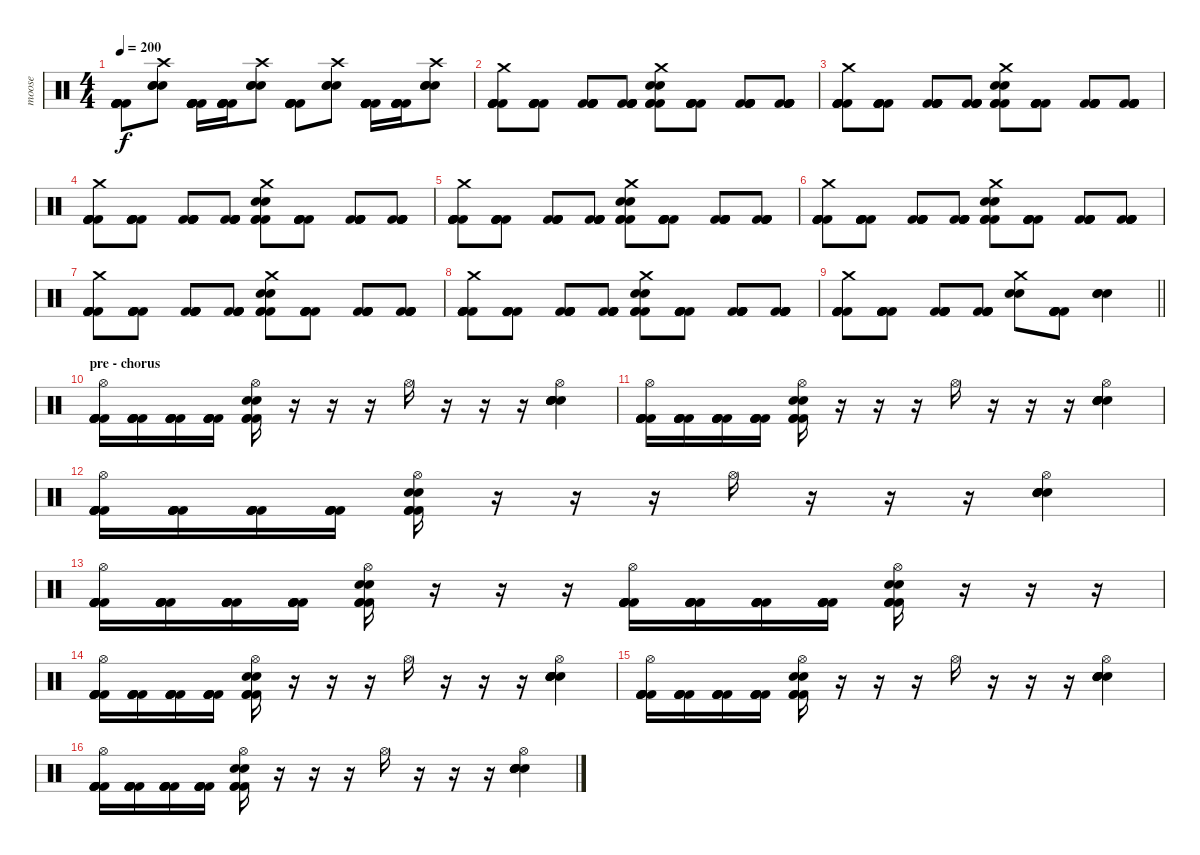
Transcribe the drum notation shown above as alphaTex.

\track ("moose" "moose") {instrument percussion}
\staff {score}
\articulation defaults
\ts (4 4)
\tempo 200
\clef neutral
\ks c
("Kick (hit) 2" "Kick (hit) 2" "Kick (hit) 2" "Kick (hit) 2" "Kick (hit) 2" "Kick (hit) 2").8{dy f} ("Electric Snare (hit)" "Electric Snare (hit)" "Electric Snare (hit)" "Crash high (hit)").8 ("Kick (hit) 2" "Kick (hit) 2" "Kick (hit) 2" "Kick (hit) 2" "Kick (hit) 2" "Kick (hit) 2").16 ("Kick (hit) 2" "Kick (hit) 2" "Kick (hit) 2" "Kick (hit) 2" "Kick (hit) 2" "Kick (hit) 2").16 ("Electric Snare (hit)" "Electric Snare (hit)" "Electric Snare (hit)" "Crash high (hit)").8 ("Kick (hit) 2" "Kick (hit) 2" "Kick (hit) 2" "Kick (hit) 2" "Kick (hit) 2" "Kick (hit) 2").8 ("Electric Snare (hit)" "Electric Snare (hit)" "Electric Snare (hit)" "Crash high (hit)").8 ("Kick (hit) 2" "Kick (hit) 2" "Kick (hit) 2" "Kick (hit) 2" "Kick (hit) 2" "Kick (hit) 2").16 ("Kick (hit) 2" "Kick (hit) 2" "Kick (hit) 2" "Kick (hit) 2" "Kick (hit) 2" "Kick (hit) 2").16 ("Electric Snare (hit)" "Electric Snare (hit)" "Electric Snare (hit)" "Crash high (hit)").8 |
("Kick (hit) 2" "Kick (hit) 2" "Kick (hit) 2" "Kick (hit) 2" "Kick (hit) 2" "Crash medium (hit)").8 ("Kick (hit) 2" "Kick (hit) 2" "Kick (hit) 2" "Kick (hit) 2" "Kick (hit) 2").8 ("Kick (hit) 2" "Kick (hit) 2" "Kick (hit) 2" "Kick (hit) 2" "Kick (hit) 2").8 ("Kick (hit) 2" "Kick (hit) 2" "Kick (hit) 2" "Kick (hit) 2" "Kick (hit) 2").8 ("Kick (hit) 2" "Kick (hit) 2" "Kick (hit) 2" "Electric Snare (hit)" "Electric Snare (hit)" "Crash medium (hit)").8 ("Kick (hit) 2" "Kick (hit) 2" "Kick (hit) 2" "Kick (hit) 2" "Kick (hit) 2").8 ("Kick (hit) 2" "Kick (hit) 2" "Kick (hit) 2" "Kick (hit) 2" "Kick (hit) 2").8 ("Kick (hit) 2" "Kick (hit) 2" "Kick (hit) 2" "Kick (hit) 2" "Kick (hit) 2").8 |
("Kick (hit) 2" "Kick (hit) 2" "Kick (hit) 2" "Kick (hit) 2" "Kick (hit) 2" "Crash medium (hit)").8 ("Kick (hit) 2" "Kick (hit) 2" "Kick (hit) 2" "Kick (hit) 2" "Kick (hit) 2").8 ("Kick (hit) 2" "Kick (hit) 2" "Kick (hit) 2" "Kick (hit) 2" "Kick (hit) 2").8 ("Kick (hit) 2" "Kick (hit) 2" "Kick (hit) 2" "Kick (hit) 2" "Kick (hit) 2").8 ("Kick (hit) 2" "Kick (hit) 2" "Kick (hit) 2" "Electric Snare (hit)" "Electric Snare (hit)" "Crash medium (hit)").8 ("Kick (hit) 2" "Kick (hit) 2" "Kick (hit) 2" "Kick (hit) 2" "Kick (hit) 2").8 ("Kick (hit) 2" "Kick (hit) 2" "Kick (hit) 2" "Kick (hit) 2" "Kick (hit) 2").8 ("Kick (hit) 2" "Kick (hit) 2" "Kick (hit) 2" "Kick (hit) 2" "Kick (hit) 2").8 |
("Kick (hit) 2" "Kick (hit) 2" "Kick (hit) 2" "Kick (hit) 2" "Kick (hit) 2" "Crash medium (hit)").8 ("Kick (hit) 2" "Kick (hit) 2" "Kick (hit) 2" "Kick (hit) 2" "Kick (hit) 2").8 ("Kick (hit) 2" "Kick (hit) 2" "Kick (hit) 2" "Kick (hit) 2" "Kick (hit) 2").8 ("Kick (hit) 2" "Kick (hit) 2" "Kick (hit) 2" "Kick (hit) 2" "Kick (hit) 2").8 ("Kick (hit) 2" "Kick (hit) 2" "Kick (hit) 2" "Electric Snare (hit)" "Electric Snare (hit)" "Crash medium (hit)").8 ("Kick (hit) 2" "Kick (hit) 2" "Kick (hit) 2" "Kick (hit) 2" "Kick (hit) 2").8 ("Kick (hit) 2" "Kick (hit) 2" "Kick (hit) 2" "Kick (hit) 2" "Kick (hit) 2").8 ("Kick (hit) 2" "Kick (hit) 2" "Kick (hit) 2" "Kick (hit) 2" "Kick (hit) 2").8 |
("Kick (hit) 2" "Kick (hit) 2" "Kick (hit) 2" "Kick (hit) 2" "Kick (hit) 2" "Crash medium (hit)").8 ("Kick (hit) 2" "Kick (hit) 2" "Kick (hit) 2" "Kick (hit) 2" "Kick (hit) 2").8 ("Kick (hit) 2" "Kick (hit) 2" "Kick (hit) 2" "Kick (hit) 2" "Kick (hit) 2").8 ("Kick (hit) 2" "Kick (hit) 2" "Kick (hit) 2" "Kick (hit) 2" "Kick (hit) 2").8 ("Kick (hit) 2" "Kick (hit) 2" "Kick (hit) 2" "Electric Snare (hit)" "Electric Snare (hit)" "Crash medium (hit)").8 ("Kick (hit) 2" "Kick (hit) 2" "Kick (hit) 2" "Kick (hit) 2" "Kick (hit) 2").8 ("Kick (hit) 2" "Kick (hit) 2" "Kick (hit) 2" "Kick (hit) 2" "Kick (hit) 2").8 ("Kick (hit) 2" "Kick (hit) 2" "Kick (hit) 2" "Kick (hit) 2" "Kick (hit) 2").8 |
("Kick (hit) 2" "Kick (hit) 2" "Kick (hit) 2" "Kick (hit) 2" "Kick (hit) 2" "Crash medium (hit)").8 ("Kick (hit) 2" "Kick (hit) 2" "Kick (hit) 2" "Kick (hit) 2" "Kick (hit) 2").8 ("Kick (hit) 2" "Kick (hit) 2" "Kick (hit) 2" "Kick (hit) 2" "Kick (hit) 2").8 ("Kick (hit) 2" "Kick (hit) 2" "Kick (hit) 2" "Kick (hit) 2" "Kick (hit) 2").8 ("Kick (hit) 2" "Kick (hit) 2" "Kick (hit) 2" "Electric Snare (hit)" "Electric Snare (hit)" "Crash medium (hit)").8 ("Kick (hit) 2" "Kick (hit) 2" "Kick (hit) 2" "Kick (hit) 2" "Kick (hit) 2").8 ("Kick (hit) 2" "Kick (hit) 2" "Kick (hit) 2" "Kick (hit) 2" "Kick (hit) 2").8 ("Kick (hit) 2" "Kick (hit) 2" "Kick (hit) 2" "Kick (hit) 2" "Kick (hit) 2").8 |
("Kick (hit) 2" "Kick (hit) 2" "Kick (hit) 2" "Kick (hit) 2" "Kick (hit) 2" "Crash medium (hit)").8 ("Kick (hit) 2" "Kick (hit) 2" "Kick (hit) 2" "Kick (hit) 2" "Kick (hit) 2").8 ("Kick (hit) 2" "Kick (hit) 2" "Kick (hit) 2" "Kick (hit) 2" "Kick (hit) 2").8 ("Kick (hit) 2" "Kick (hit) 2" "Kick (hit) 2" "Kick (hit) 2" "Kick (hit) 2").8 ("Kick (hit) 2" "Kick (hit) 2" "Kick (hit) 2" "Electric Snare (hit)" "Electric Snare (hit)" "Crash medium (hit)").8 ("Kick (hit) 2" "Kick (hit) 2" "Kick (hit) 2" "Kick (hit) 2" "Kick (hit) 2").8 ("Kick (hit) 2" "Kick (hit) 2" "Kick (hit) 2" "Kick (hit) 2" "Kick (hit) 2").8 ("Kick (hit) 2" "Kick (hit) 2" "Kick (hit) 2" "Kick (hit) 2" "Kick (hit) 2").8 |
("Kick (hit) 2" "Kick (hit) 2" "Kick (hit) 2" "Kick (hit) 2" "Kick (hit) 2" "Crash medium (hit)").8 ("Kick (hit) 2" "Kick (hit) 2" "Kick (hit) 2" "Kick (hit) 2" "Kick (hit) 2").8 ("Kick (hit) 2" "Kick (hit) 2" "Kick (hit) 2" "Kick (hit) 2" "Kick (hit) 2").8 ("Kick (hit) 2" "Kick (hit) 2" "Kick (hit) 2" "Kick (hit) 2" "Kick (hit) 2").8 ("Kick (hit) 2" "Kick (hit) 2" "Kick (hit) 2" "Electric Snare (hit)" "Electric Snare (hit)" "Crash medium (hit)").8 ("Kick (hit) 2" "Kick (hit) 2" "Kick (hit) 2" "Kick (hit) 2" "Kick (hit) 2").8 ("Kick (hit) 2" "Kick (hit) 2" "Kick (hit) 2" "Kick (hit) 2" "Kick (hit) 2").8 ("Kick (hit) 2" "Kick (hit) 2" "Kick (hit) 2" "Kick (hit) 2" "Kick (hit) 2").8 |
\barLineRight lightlight
("Kick (hit) 2" "Kick (hit) 2" "Kick (hit) 2" "Kick (hit) 2" "Kick (hit) 2" "Crash medium (hit)").8 ("Kick (hit) 2" "Kick (hit) 2" "Kick (hit) 2" "Kick (hit) 2" "Kick (hit) 2").8 ("Kick (hit) 2" "Kick (hit) 2" "Kick (hit) 2" "Kick (hit) 2" "Kick (hit) 2").8 ("Kick (hit) 2" "Kick (hit) 2" "Kick (hit) 2" "Kick (hit) 2" "Kick (hit) 2").8 ("Electric Snare (hit)" "Electric Snare (hit)" "Crash medium (hit)").8 ("Kick (hit) 2" "Kick (hit) 2" "Kick (hit) 2" "Kick (hit) 2" "Kick (hit) 2").8 ("Electric Snare (hit)" "Electric Snare (hit)" "Electric Snare (hit)").4 |
\section ("" "pre - chorus")
("Kick (hit) 2" "Kick (hit) 2" "Kick (hit) 2" "Kick (hit) 2" "Kick (hit) 2" "Hi-Hat (open)").16 ("Kick (hit) 2" "Kick (hit) 2" "Kick (hit) 2" "Kick (hit) 2" "Kick (hit) 2").16 ("Kick (hit) 2" "Kick (hit) 2" "Kick (hit) 2" "Kick (hit) 2" "Kick (hit) 2").16 ("Kick (hit) 2" "Kick (hit) 2" "Kick (hit) 2" "Kick (hit) 2" "Kick (hit) 2").16 ("Kick (hit) 2" "Kick (hit) 2" "Kick (hit) 2" "Electric Snare (hit)" "Electric Snare (hit)" "Hi-Hat (open)").16 r.16 r.16 r.16 "Hi-Hat (open)".16 r.16 r.16 r.16 ("Electric Snare (hit)" "Electric Snare (hit)" "Electric Snare (hit)" "Electric Snare (hit)" "Electric Snare (hit)" "Hi-Hat (open)").4 |
("Kick (hit) 2" "Kick (hit) 2" "Kick (hit) 2" "Kick (hit) 2" "Kick (hit) 2" "Hi-Hat (open)").16 ("Kick (hit) 2" "Kick (hit) 2" "Kick (hit) 2" "Kick (hit) 2" "Kick (hit) 2").16 ("Kick (hit) 2" "Kick (hit) 2" "Kick (hit) 2" "Kick (hit) 2" "Kick (hit) 2").16 ("Kick (hit) 2" "Kick (hit) 2" "Kick (hit) 2" "Kick (hit) 2" "Kick (hit) 2").16 ("Kick (hit) 2" "Kick (hit) 2" "Kick (hit) 2" "Electric Snare (hit)" "Electric Snare (hit)" "Hi-Hat (open)").16 r.16 r.16 r.16 "Hi-Hat (open)".16 r.16 r.16 r.16 ("Electric Snare (hit)" "Electric Snare (hit)" "Electric Snare (hit)" "Electric Snare (hit)" "Electric Snare (hit)" "Hi-Hat (open)").4 |
("Kick (hit) 2" "Kick (hit) 2" "Kick (hit) 2" "Kick (hit) 2" "Kick (hit) 2" "Hi-Hat (open)").16 ("Kick (hit) 2" "Kick (hit) 2" "Kick (hit) 2" "Kick (hit) 2" "Kick (hit) 2").16 ("Kick (hit) 2" "Kick (hit) 2" "Kick (hit) 2" "Kick (hit) 2" "Kick (hit) 2").16 ("Kick (hit) 2" "Kick (hit) 2" "Kick (hit) 2" "Kick (hit) 2" "Kick (hit) 2").16 ("Kick (hit) 2" "Kick (hit) 2" "Kick (hit) 2" "Electric Snare (hit)" "Electric Snare (hit)" "Hi-Hat (open)").16 r.16 r.16 r.16 "Hi-Hat (open)".16 r.16 r.16 r.16 ("Electric Snare (hit)" "Electric Snare (hit)" "Electric Snare (hit)" "Electric Snare (hit)" "Electric Snare (hit)" "Hi-Hat (open)").4 |
("Kick (hit) 2" "Kick (hit) 2" "Kick (hit) 2" "Kick (hit) 2" "Kick (hit) 2" "Hi-Hat (open)").16 ("Kick (hit) 2" "Kick (hit) 2" "Kick (hit) 2" "Kick (hit) 2" "Kick (hit) 2").16 ("Kick (hit) 2" "Kick (hit) 2" "Kick (hit) 2" "Kick (hit) 2" "Kick (hit) 2").16 ("Kick (hit) 2" "Kick (hit) 2" "Kick (hit) 2" "Kick (hit) 2" "Kick (hit) 2").16 ("Kick (hit) 2" "Kick (hit) 2" "Kick (hit) 2" "Electric Snare (hit)" "Electric Snare (hit)" "Hi-Hat (open)").16 r.16 r.16 r.16 ("Kick (hit) 2" "Kick (hit) 2" "Kick (hit) 2" "Kick (hit) 2" "Kick (hit) 2" "Hi-Hat (open)").16 ("Kick (hit) 2" "Kick (hit) 2" "Kick (hit) 2" "Kick (hit) 2" "Kick (hit) 2").16 ("Kick (hit) 2" "Kick (hit) 2" "Kick (hit) 2" "Kick (hit) 2" "Kick (hit) 2").16 ("Kick (hit) 2" "Kick (hit) 2" "Kick (hit) 2" "Kick (hit) 2" "Kick (hit) 2").16 ("Kick (hit) 2" "Kick (hit) 2" "Kick (hit) 2" "Electric Snare (hit)" "Electric Snare (hit)" "Hi-Hat (open)").16 r.16 r.16 r.16 |
("Kick (hit) 2" "Kick (hit) 2" "Kick (hit) 2" "Kick (hit) 2" "Kick (hit) 2" "Hi-Hat (open)").16 ("Kick (hit) 2" "Kick (hit) 2" "Kick (hit) 2" "Kick (hit) 2" "Kick (hit) 2").16 ("Kick (hit) 2" "Kick (hit) 2" "Kick (hit) 2" "Kick (hit) 2" "Kick (hit) 2").16 ("Kick (hit) 2" "Kick (hit) 2" "Kick (hit) 2" "Kick (hit) 2" "Kick (hit) 2").16 ("Kick (hit) 2" "Kick (hit) 2" "Kick (hit) 2" "Electric Snare (hit)" "Electric Snare (hit)" "Hi-Hat (open)").16 r.16 r.16 r.16 "Hi-Hat (open)".16 r.16 r.16 r.16 ("Electric Snare (hit)" "Electric Snare (hit)" "Electric Snare (hit)" "Electric Snare (hit)" "Electric Snare (hit)" "Hi-Hat (open)").4 |
("Kick (hit) 2" "Kick (hit) 2" "Kick (hit) 2" "Kick (hit) 2" "Kick (hit) 2" "Hi-Hat (open)").16 ("Kick (hit) 2" "Kick (hit) 2" "Kick (hit) 2" "Kick (hit) 2" "Kick (hit) 2").16 ("Kick (hit) 2" "Kick (hit) 2" "Kick (hit) 2" "Kick (hit) 2" "Kick (hit) 2").16 ("Kick (hit) 2" "Kick (hit) 2" "Kick (hit) 2" "Kick (hit) 2" "Kick (hit) 2").16 ("Kick (hit) 2" "Kick (hit) 2" "Kick (hit) 2" "Electric Snare (hit)" "Electric Snare (hit)" "Hi-Hat (open)").16 r.16 r.16 r.16 "Hi-Hat (open)".16 r.16 r.16 r.16 ("Electric Snare (hit)" "Electric Snare (hit)" "Electric Snare (hit)" "Electric Snare (hit)" "Electric Snare (hit)" "Hi-Hat (open)").4 |
("Kick (hit) 2" "Kick (hit) 2" "Kick (hit) 2" "Kick (hit) 2" "Kick (hit) 2" "Hi-Hat (open)").16 ("Kick (hit) 2" "Kick (hit) 2" "Kick (hit) 2" "Kick (hit) 2" "Kick (hit) 2").16 ("Kick (hit) 2" "Kick (hit) 2" "Kick (hit) 2" "Kick (hit) 2" "Kick (hit) 2").16 ("Kick (hit) 2" "Kick (hit) 2" "Kick (hit) 2" "Kick (hit) 2" "Kick (hit) 2").16 ("Kick (hit) 2" "Kick (hit) 2" "Kick (hit) 2" "Electric Snare (hit)" "Electric Snare (hit)" "Hi-Hat (open)").16 r.16 r.16 r.16 "Hi-Hat (open)".16 r.16 r.16 r.16 ("Electric Snare (hit)" "Electric Snare (hit)" "Electric Snare (hit)" "Electric Snare (hit)" "Electric Snare (hit)" "Hi-Hat (open)").4
